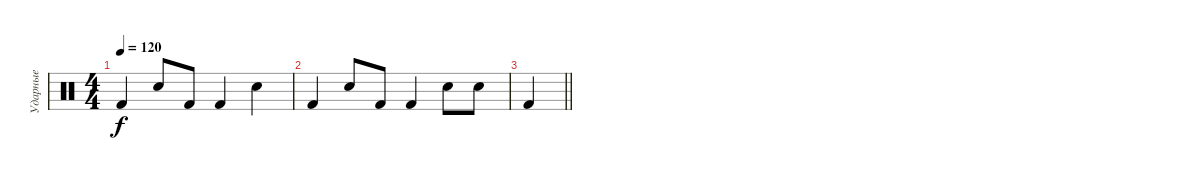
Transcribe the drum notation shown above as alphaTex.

\track ("Ударные" "Ударные") {instrument percussion}
\staff {score}
\articulation defaults
\ts (4 4)
\tempo 120
\clef neutral
\ks c "Kick (hit) 2".4{dy f} "Electric Snare (hit)".8 "Kick (hit) 2".8 "Kick (hit) 2".4 "Electric Snare (hit)".4
|
"Kick (hit) 2".4 "Electric Snare (hit)".8 "Kick (hit) 2".8 "Kick (hit) 2".4 "Electric Snare (hit)".8 "Electric Snare (hit)".8 |
\barLineRight lightlight "Kick (hit) 2".4
